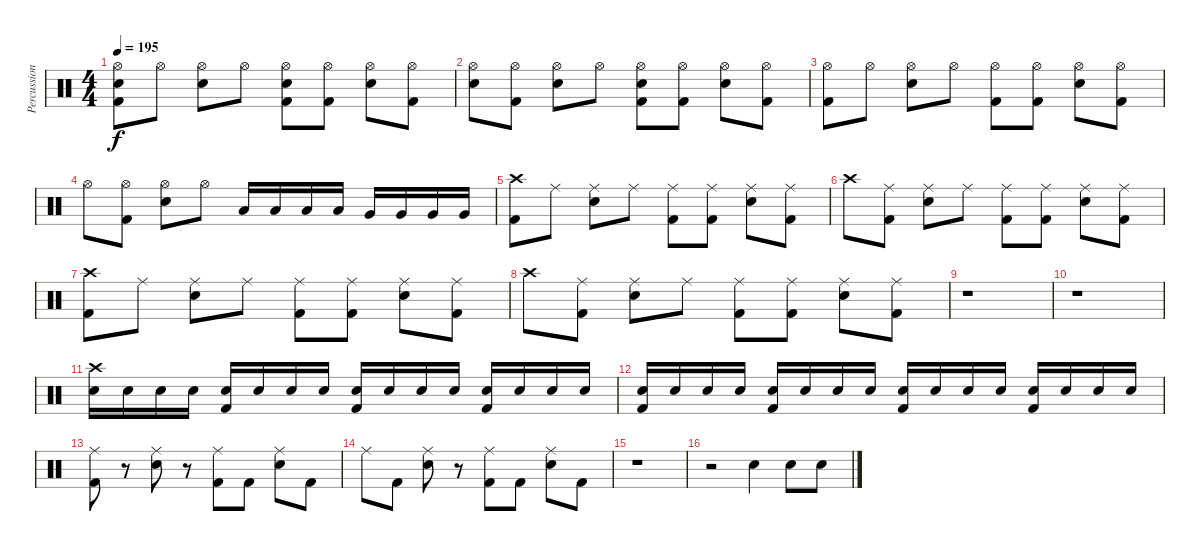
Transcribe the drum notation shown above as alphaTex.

\track ("Percussion" "Percussion") {instrument percussion}
\staff {score}
\articulation defaults
\ts (4 4)
\tempo 195
\clef neutral
\ks c
("Hi-Hat (open)" "Electric Snare (hit)" "Kick (hit) 2").8{dy f} "Hi-Hat (open)".8 ("Hi-Hat (open)" "Electric Snare (hit)").8 "Hi-Hat (open)".8 ("Hi-Hat (open)" "Electric Snare (hit)" "Kick (hit) 2").8 ("Hi-Hat (open)" "Kick (hit) 2").8 ("Hi-Hat (open)" "Electric Snare (hit)").8 ("Hi-Hat (open)" "Kick (hit) 2").8 |
("Hi-Hat (open)" "Electric Snare (hit)").8 ("Hi-Hat (open)" "Kick (hit) 2").8 ("Hi-Hat (open)" "Electric Snare (hit)").8 "Hi-Hat (open)".8 ("Hi-Hat (open)" "Electric Snare (hit)" "Kick (hit) 2").8 ("Hi-Hat (open)" "Kick (hit) 2").8 ("Hi-Hat (open)" "Electric Snare (hit)").8 ("Hi-Hat (open)" "Kick (hit) 2").8 |
("Hi-Hat (open)" "Kick (hit) 2").8 "Hi-Hat (open)".8 ("Hi-Hat (open)" "Electric Snare (hit)").8 "Hi-Hat (open)".8 ("Hi-Hat (open)" "Kick (hit) 2").8 ("Hi-Hat (open)" "Kick (hit) 2").8 ("Hi-Hat (open)" "Electric Snare (hit)").8 ("Hi-Hat (open)" "Kick (hit) 2").8 |
"Hi-Hat (open)".8 ("Hi-Hat (open)" "Kick (hit) 2").8 ("Hi-Hat (open)" "Electric Snare (hit)").8 "Hi-Hat (open)".8 "Low Tom (hit)".16 "Low Tom (hit)".16 "Low Tom (hit)".16 "Low Tom (hit)".16 "Very Low Tom (hit)".16 "Very Low Tom (hit)".16 "Very Low Tom (hit)".16 "Very Low Tom (hit)".16 |
("Crash high (hit)" "Kick (hit) 2").8 "Ride (middle)".8 ("Ride (middle)" "Electric Snare (hit)").8 "Ride (middle)".8 ("Ride (middle)" "Kick (hit) 2").8 ("Ride (middle)" "Kick (hit) 2").8 ("Ride (middle)" "Electric Snare (hit)").8 ("Ride (middle)" "Kick (hit) 2").8 |
"Crash high (hit)".8 ("Ride (middle)" "Kick (hit) 2").8 ("Ride (middle)" "Electric Snare (hit)").8 "Ride (middle)".8 ("Ride (middle)" "Kick (hit) 2").8 ("Ride (middle)" "Kick (hit) 2").8 ("Ride (middle)" "Electric Snare (hit)").8 ("Ride (middle)" "Kick (hit) 2").8 |
("Crash high (hit)" "Kick (hit) 2").8 "Ride (middle)".8 ("Ride (middle)" "Electric Snare (hit)").8 "Ride (middle)".8 ("Ride (middle)" "Kick (hit) 2").8 ("Ride (middle)" "Kick (hit) 2").8 ("Ride (middle)" "Electric Snare (hit)").8 ("Ride (middle)" "Kick (hit) 2").8 |
"Crash high (hit)".8 ("Ride (middle)" "Kick (hit) 2").8 ("Ride (middle)" "Electric Snare (hit)").8 "Ride (middle)".8 ("Ride (middle)" "Kick (hit) 2").8 ("Ride (middle)" "Kick (hit) 2").8 ("Ride (middle)" "Electric Snare (hit)").8 ("Ride (middle)" "Kick (hit) 2").8 |
r.1 |
r.1 |
("Electric Snare (hit)" "Crash high (hit)").16 "Electric Snare (hit)".16 "Electric Snare (hit)".16 "Electric Snare (hit)".16 ("Electric Snare (hit)" "Kick (hit) 2").16 "Electric Snare (hit)".16 "Electric Snare (hit)".16 "Electric Snare (hit)".16 ("Electric Snare (hit)" "Kick (hit) 2").16 "Electric Snare (hit)".16 "Electric Snare (hit)".16 "Electric Snare (hit)".16 ("Electric Snare (hit)" "Kick (hit) 2").16 "Electric Snare (hit)".16 "Electric Snare (hit)".16 "Electric Snare (hit)".16 |
("Electric Snare (hit)" "Kick (hit) 2").16 "Electric Snare (hit)".16 "Electric Snare (hit)".16 "Electric Snare (hit)".16 ("Electric Snare (hit)" "Kick (hit) 2").16 "Electric Snare (hit)".16 "Electric Snare (hit)".16 "Electric Snare (hit)".16 ("Electric Snare (hit)" "Kick (hit) 2").16 "Electric Snare (hit)".16 "Electric Snare (hit)".16 "Electric Snare (hit)".16 ("Electric Snare (hit)" "Kick (hit) 2").16 "Electric Snare (hit)".16 "Electric Snare (hit)".16 "Electric Snare (hit)".16 |
("Ride (middle)" "Kick (hit) 2").8 r.8 ("Ride (middle)" "Electric Snare (hit)").8 r.8 ("Ride (middle)" "Kick (hit) 2").8 "Kick (hit) 2".8 ("Ride (middle)" "Electric Snare (hit)").8 "Kick (hit) 2".8 |
"Ride (middle)".8 "Kick (hit) 2".8 ("Ride (middle)" "Electric Snare (hit)").8 r.8 ("Ride (middle)" "Kick (hit) 2").8 "Kick (hit) 2".8 ("Ride (middle)" "Electric Snare (hit)").8 "Kick (hit) 2".8 |
r.1 |
r.2 "Electric Snare (hit)".4 "Electric Snare (hit)".8 "Electric Snare (hit)".8
